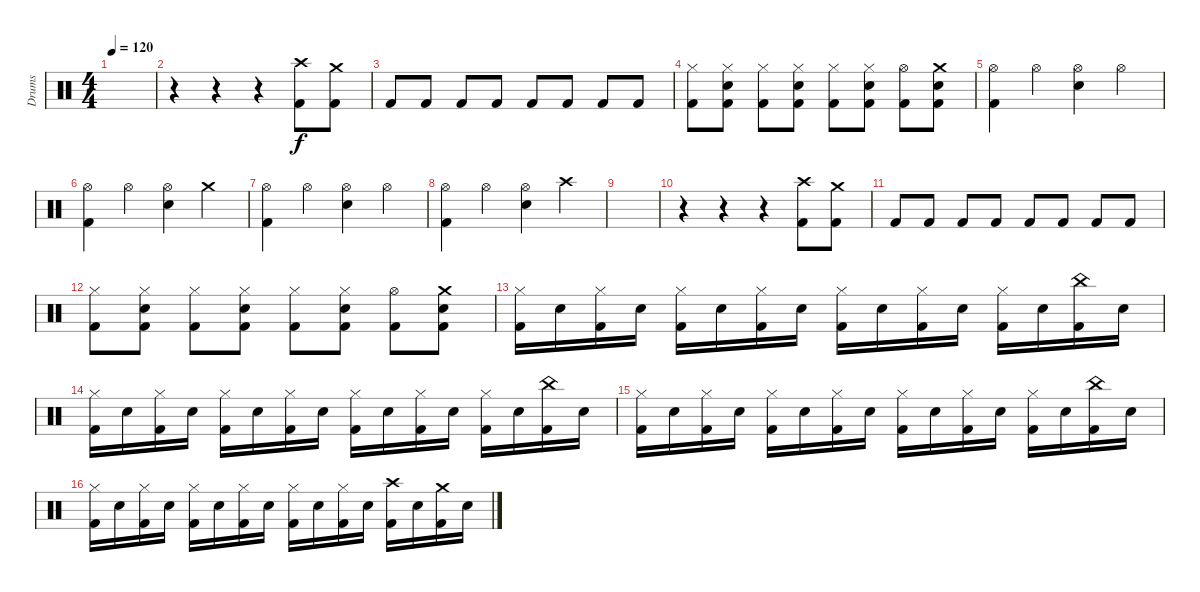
\track ("Drums" "Drums") {instrument percussion}
\staff {score}
\articulation defaults
\ts (4 4)
\tempo 120
\clef neutral
\ks c
|
r.4 r.4 r.4 ("Kick (hit) 2" "Crash high (hit)").8 ("Kick (hit) 2" "Crash medium (hit)").8 |
"Kick (hit) 2".8 "Kick (hit) 2".8 "Kick (hit) 2".8 "Kick (hit) 2".8 "Kick (hit) 2".8 "Kick (hit) 2".8 "Kick (hit) 2".8 "Kick (hit) 2".8 |
("Hi-Hat (closed)" "Kick (hit) 2").8 ("Hi-Hat (closed)" "Kick (hit) 2" "Snare (hit) 2").8 ("Hi-Hat (closed)" "Kick (hit) 2").8 ("Hi-Hat (closed)" "Kick (hit) 2" "Snare (hit) 2").8 ("Hi-Hat (closed)" "Kick (hit) 2").8 ("Hi-Hat (closed)" "Kick (hit) 2" "Snare (hit) 2").8 ("Hi-Hat (open)" "Kick (hit) 2").8 ("Crash medium (hit)" "Kick (hit) 2" "Snare (hit) 2").8 |
("Hi-Hat (open)" "Kick (hit) 2").4 "Hi-Hat (open)".4 ("Hi-Hat (open)" "Snare (hit) 2").4 "Hi-Hat (open)".4 |
("Hi-Hat (open)" "Kick (hit) 2").4 "Hi-Hat (open)".4 ("Hi-Hat (open)" "Snare (hit) 2").4 "Crash medium (hit)".4 |
("Hi-Hat (open)" "Kick (hit) 2").4 "Hi-Hat (open)".4 ("Hi-Hat (open)" "Snare (hit) 2").4 "Hi-Hat (open)".4 |
("Hi-Hat (open)" "Kick (hit) 2").4 "Hi-Hat (open)".4 ("Hi-Hat (open)" "Snare (hit) 2").4 "Crash high (hit)".4 |
|
r.4 r.4 r.4 ("Kick (hit) 2" "Crash high (hit)").8 ("Kick (hit) 2" "Crash medium (hit)").8 |
"Kick (hit) 2".8 "Kick (hit) 2".8 "Kick (hit) 2".8 "Kick (hit) 2".8 "Kick (hit) 2".8 "Kick (hit) 2".8 "Kick (hit) 2".8 "Kick (hit) 2".8 |
("Hi-Hat (closed)" "Kick (hit) 2").8 ("Hi-Hat (closed)" "Kick (hit) 2" "Snare (hit) 2").8 ("Hi-Hat (closed)" "Kick (hit) 2").8 ("Hi-Hat (closed)" "Kick (hit) 2" "Snare (hit) 2").8 ("Hi-Hat (closed)" "Kick (hit) 2").8 ("Hi-Hat (closed)" "Kick (hit) 2" "Snare (hit) 2").8 ("Hi-Hat (open)" "Kick (hit) 2").8 ("Crash medium (hit)" "Kick (hit) 2" "Snare (hit) 2").8 |
("Hi-Hat (closed)" "Kick (hit) 2").16 "Snare (hit) 2".16 ("Hi-Hat (closed)" "Kick (hit) 2").16 "Snare (hit) 2".16 ("Hi-Hat (closed)" "Kick (hit) 2").16 "Snare (hit) 2".16 ("Hi-Hat (closed)" "Kick (hit) 2").16 "Snare (hit) 2".16 ("Hi-Hat (closed)" "Kick (hit) 2").16 "Snare (hit) 2".16 ("Hi-Hat (closed)" "Kick (hit) 2").16 "Snare (hit) 2".16 ("Hi-Hat (closed)" "Kick (hit) 2").16 "Snare (hit) 2".16 ("China (hit)" "Kick (hit) 2").16 "Snare (hit) 2".16 |
("Hi-Hat (closed)" "Kick (hit) 2").16 "Snare (hit) 2".16 ("Hi-Hat (closed)" "Kick (hit) 2").16 "Snare (hit) 2".16 ("Hi-Hat (closed)" "Kick (hit) 2").16 "Snare (hit) 2".16 ("Hi-Hat (closed)" "Kick (hit) 2").16 "Snare (hit) 2".16 ("Hi-Hat (closed)" "Kick (hit) 2").16 "Snare (hit) 2".16 ("Hi-Hat (closed)" "Kick (hit) 2").16 "Snare (hit) 2".16 ("Hi-Hat (closed)" "Kick (hit) 2").16 "Snare (hit) 2".16 ("China (hit)" "Kick (hit) 2").16 "Snare (hit) 2".16 |
("Hi-Hat (closed)" "Kick (hit) 2").16 "Snare (hit) 2".16 ("Hi-Hat (closed)" "Kick (hit) 2").16 "Snare (hit) 2".16 ("Hi-Hat (closed)" "Kick (hit) 2").16 "Snare (hit) 2".16 ("Hi-Hat (closed)" "Kick (hit) 2").16 "Snare (hit) 2".16 ("Hi-Hat (closed)" "Kick (hit) 2").16 "Snare (hit) 2".16 ("Hi-Hat (closed)" "Kick (hit) 2").16 "Snare (hit) 2".16 ("Hi-Hat (closed)" "Kick (hit) 2").16 "Snare (hit) 2".16 ("China (hit)" "Kick (hit) 2").16 "Snare (hit) 2".16 |
("Hi-Hat (closed)" "Kick (hit) 2").16 "Snare (hit) 2".16 ("Hi-Hat (closed)" "Kick (hit) 2").16 "Snare (hit) 2".16 ("Hi-Hat (closed)" "Kick (hit) 2").16 "Snare (hit) 2".16 ("Hi-Hat (closed)" "Kick (hit) 2").16 "Snare (hit) 2".16 ("Hi-Hat (closed)" "Kick (hit) 2").16 "Snare (hit) 2".16 ("Hi-Hat (closed)" "Kick (hit) 2").16 "Snare (hit) 2".16 ("Crash high (hit)" "Kick (hit) 2").16 "Snare (hit) 2".16 ("Crash medium (hit)" "Kick (hit) 2").16 "Snare (hit) 2".16
